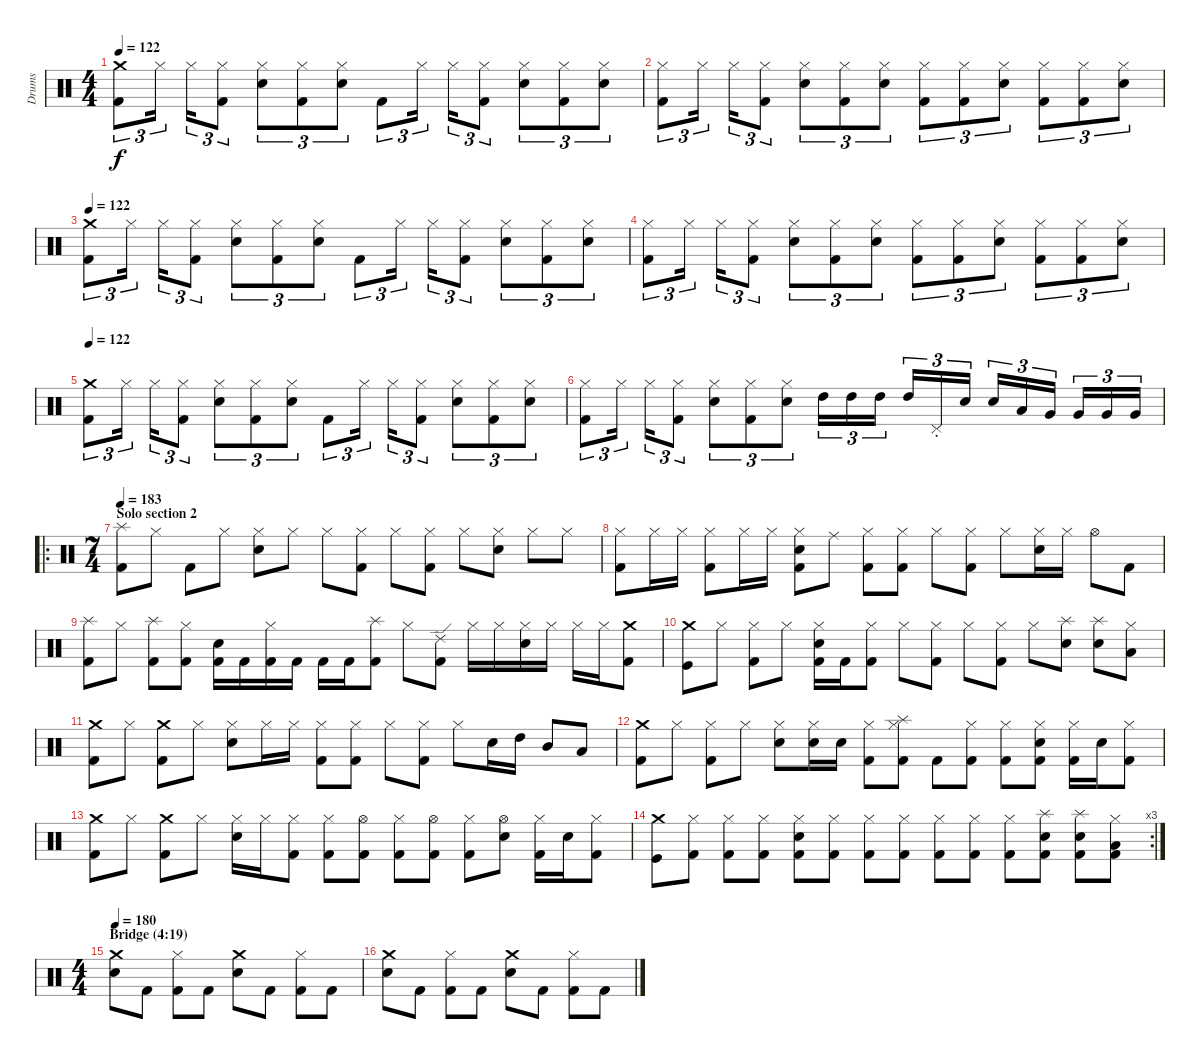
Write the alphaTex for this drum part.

\track ("Drums" "Drums") {instrument percussion}
\staff {score}
\articulation defaults
\ts (4 4)
\tempo 122
\clef neutral
\ks c
("Kick (hit) 2" "Crash medium (hit)").8{tu (3 2) dy f} "Hi-Hat (closed)".16{tu (3 2)} "Hi-Hat (closed)".16{tu (3 2)} ("Hi-Hat (closed)" "Kick (hit) 2").8{tu (3 2)} ("Hi-Hat (closed)" "Electric Snare (hit)").8{tu (3 2)} ("Hi-Hat (closed)" "Kick (hit) 2").8{tu (3 2)} ("Hi-Hat (closed)" "Electric Snare (hit)").8{tu (3 2)} "Kick (hit) 2".8{tu (3 2)} "Hi-Hat (closed)".16{tu (3 2)} "Hi-Hat (closed)".16{tu (3 2)} ("Hi-Hat (closed)" "Kick (hit) 2").8{tu (3 2)} ("Hi-Hat (closed)" "Electric Snare (hit)").8{tu (3 2)} ("Hi-Hat (closed)" "Kick (hit) 2").8{tu (3 2)} ("Hi-Hat (closed)" "Electric Snare (hit)").8{tu (3 2)} |
("Hi-Hat (closed)" "Kick (hit) 2").8{tu (3 2)} "Hi-Hat (closed)".16{tu (3 2)} "Hi-Hat (closed)".16{tu (3 2)} ("Hi-Hat (closed)" "Kick (hit) 2").8{tu (3 2)} ("Hi-Hat (closed)" "Electric Snare (hit)").8{tu (3 2)} ("Hi-Hat (closed)" "Kick (hit) 2").8{tu (3 2)} ("Hi-Hat (closed)" "Electric Snare (hit)").8{tu (3 2)} ("Hi-Hat (closed)" "Kick (hit) 2").8{tu (3 2)} ("Hi-Hat (closed)" "Kick (hit) 2").8{tu (3 2)} ("Hi-Hat (closed)" "Electric Snare (hit)").8{tu (3 2)} ("Hi-Hat (closed)" "Kick (hit) 2").8{tu (3 2)} ("Hi-Hat (closed)" "Kick (hit) 2").8{tu (3 2)} ("Hi-Hat (closed)" "Electric Snare (hit)").8{tu (3 2)} |
\tempo 122
("Kick (hit) 2" "Crash medium (hit)").8{tu (3 2)} "Hi-Hat (closed)".16{tu (3 2)} "Hi-Hat (closed)".16{tu (3 2)} ("Hi-Hat (closed)" "Kick (hit) 2").8{tu (3 2)} ("Hi-Hat (closed)" "Electric Snare (hit)").8{tu (3 2)} ("Hi-Hat (closed)" "Kick (hit) 2").8{tu (3 2)} ("Hi-Hat (closed)" "Electric Snare (hit)").8{tu (3 2)} "Kick (hit) 2".8{tu (3 2)} "Hi-Hat (closed)".16{tu (3 2)} "Hi-Hat (closed)".16{tu (3 2)} ("Hi-Hat (closed)" "Kick (hit) 2").8{tu (3 2)} ("Hi-Hat (closed)" "Electric Snare (hit)").8{tu (3 2)} ("Hi-Hat (closed)" "Kick (hit) 2").8{tu (3 2)} ("Hi-Hat (closed)" "Electric Snare (hit)").8{tu (3 2)} |
("Hi-Hat (closed)" "Kick (hit) 2").8{tu (3 2)} "Hi-Hat (closed)".16{tu (3 2)} "Hi-Hat (closed)".16{tu (3 2)} ("Hi-Hat (closed)" "Kick (hit) 2").8{tu (3 2)} ("Hi-Hat (closed)" "Electric Snare (hit)").8{tu (3 2)} ("Hi-Hat (closed)" "Kick (hit) 2").8{tu (3 2)} ("Hi-Hat (closed)" "Electric Snare (hit)").8{tu (3 2)} ("Hi-Hat (closed)" "Kick (hit) 2").8{tu (3 2)} ("Hi-Hat (closed)" "Kick (hit) 2").8{tu (3 2)} ("Hi-Hat (closed)" "Electric Snare (hit)").8{tu (3 2)} ("Hi-Hat (closed)" "Kick (hit) 2").8{tu (3 2)} ("Hi-Hat (closed)" "Kick (hit) 2").8{tu (3 2)} ("Hi-Hat (closed)" "Electric Snare (hit)").8{tu (3 2)} |
\tempo 122
("Kick (hit) 2" "Crash medium (hit)").8{tu (3 2)} "Hi-Hat (closed)".16{tu (3 2)} "Hi-Hat (closed)".16{tu (3 2)} ("Hi-Hat (closed)" "Kick (hit) 2").8{tu (3 2)} ("Hi-Hat (closed)" "Electric Snare (hit)").8{tu (3 2)} ("Hi-Hat (closed)" "Kick (hit) 2").8{tu (3 2)} ("Hi-Hat (closed)" "Electric Snare (hit)").8{tu (3 2)} "Kick (hit) 2".8{tu (3 2)} "Hi-Hat (closed)".16{tu (3 2)} "Hi-Hat (closed)".16{tu (3 2)} ("Hi-Hat (closed)" "Kick (hit) 2").8{tu (3 2)} ("Hi-Hat (closed)" "Electric Snare (hit)").8{tu (3 2)} ("Hi-Hat (closed)" "Kick (hit) 2").8{tu (3 2)} ("Hi-Hat (closed)" "Electric Snare (hit)").8{tu (3 2)} |
("Hi-Hat (closed)" "Kick (hit) 2").8{tu (3 2)} "Hi-Hat (closed)".16{tu (3 2)} "Hi-Hat (closed)".16{tu (3 2)} ("Hi-Hat (closed)" "Kick (hit) 2").8{tu (3 2)} ("Hi-Hat (closed)" "Electric Snare (hit)").8{tu (3 2)} ("Hi-Hat (closed)" "Kick (hit) 2").8{tu (3 2)} ("Hi-Hat (closed)" "Electric Snare (hit)").8{tu (3 2)} "High Tom (hit)".16{tu (3 2)} "High Tom (hit)".16{tu (3 2) balance 4} "High Tom (hit)".16{tu (3 2)} "High Tom (hit)".16{tu (3 2)} "Pedal Hi-Hat (hit)"{st}.16{tu (3 2)} "Electric Snare (hit)".16{tu (3 2) balance 8} "Electric Snare (hit)".16{tu (3 2)} "Low Floor Tom (hit)".16{tu (3 2)} "Very Low Tom (hit)".16{tu (3 2) balance 11} "Very Low Tom (hit)".16{tu (3 2)} "Very Low Tom (hit)".16{tu (3 2)} "Very Low Tom (hit)".16{tu (3 2)} |
\ro
\ts (7 4)
\section ("" "Solo section 2")
\tempo 183
("Splash (hit)" "Kick (hit) 2").8 "Hi-Hat (closed)".8 "Kick (hit) 2".8 "Hi-Hat (closed)".8 ("Hi-Hat (closed)" "Electric Snare (hit)").8 "Hi-Hat (closed)".8 "Hi-Hat (closed)".8 ("Hi-Hat (closed)" "Kick (hit) 2").8 "Hi-Hat (closed)".8 ("Hi-Hat (closed)" "Kick (hit) 2").8 "Hi-Hat (closed)".8 ("Hi-Hat (closed)" "Electric Snare (hit)").8 "Hi-Hat (closed)".8 "Hi-Hat (closed)".8 |
("Hi-Hat (closed)" "Kick (hit) 2").8 "Hi-Hat (closed)".16 "Hi-Hat (closed)".16 ("Hi-Hat (closed)" "Kick (hit) 2").8 "Hi-Hat (closed)".16 "Hi-Hat (closed)".16 ("Hi-Hat (closed)" "Electric Snare (hit)" "Kick (hit) 2").8 "Ride (middle)".8 ("Hi-Hat (closed)" "Kick (hit) 2").8 ("Hi-Hat (closed)" "Kick (hit) 2").8 "Hi-Hat (closed)".8 ("Hi-Hat (closed)" "Kick (hit) 2").8 "Hi-Hat (closed)".8 ("Hi-Hat (closed)" "Electric Snare (hit)").16 "Hi-Hat (closed)".16 "Hi-Hat (open)".8 "Kick (hit) 2".8 |
("Splash (hit)" "Kick (hit) 2").8 "Hi-Hat (closed)".8 ("Splash (hit)" "Kick (hit) 2").8 ("Hi-Hat (closed)" "Kick (hit) 2").8 ("Electric Snare (hit)" "Kick (hit) 2").16 "Kick (hit) 2".16 ("Hi-Hat (closed)" "Kick (hit) 2").16 "Kick (hit) 2".16 "Kick (hit) 2".16 "Kick (hit) 2".16 ("Splash (hit)" "Kick (hit) 2").8 "Hi-Hat (closed)".8 ("Ride (edge) 2" "Kick (hit) 2").8 "Hi-Hat (closed)".16 "Hi-Hat (closed)".16 ("Hi-Hat (closed)" "Electric Snare (hit)").16 "Hi-Hat (closed)".16 "Hi-Hat (closed)".16 "Hi-Hat (closed)".16 ("Crash medium (hit)" "Kick (hit) 2").8 |
("Crash medium (hit)" "Kick (hit)").8 "Hi-Hat (closed)".8 ("Hi-Hat (closed)" "Kick (hit) 2").8 "Hi-Hat (closed)".8 ("Hi-Hat (closed)" "Electric Snare (hit)" "Kick (hit) 2").16 "Kick (hit) 2".16 ("Hi-Hat (closed)" "Kick (hit) 2").8 "Hi-Hat (closed)".8 ("Hi-Hat (closed)" "Kick (hit) 2").8 "Hi-Hat (closed)".8 ("Hi-Hat (closed)" "Kick (hit) 2").8 "Hi-Hat (closed)".8 ("Splash (hit)" "Electric Snare (hit)").8 ("Splash (hit)" "Electric Snare (hit)").8 ("Hi-Hat (closed)" "Low Floor Tom (hit)").8 |
("Crash medium (hit)" "Kick (hit) 2").8 "Hi-Hat (closed)".8 ("Crash medium (hit)" "Kick (hit) 2").8 "Hi-Hat (closed)".8 ("Hi-Hat (closed)" "Electric Snare (hit)").8 "Hi-Hat (closed)".16 "Hi-Hat (closed)".16 ("Hi-Hat (closed)" "Kick (hit) 2").8 ("Hi-Hat (closed)" "Kick (hit) 2").8 "Hi-Hat (closed)".8 ("Hi-Hat (closed)" "Kick (hit) 2").8 "Hi-Hat (closed)".8 "Electric Snare (hit)".16 "High Tom (hit)".16 "Mid Tom (hit)".8 "Low Tom (hit)".8 |
("Crash medium (hit)" "Kick (hit) 2").8 "Hi-Hat (closed)".8 ("Hi-Hat (closed)" "Kick (hit) 2").8 "Hi-Hat (closed)".8 ("Hi-Hat (closed)" "Electric Snare (hit)").8 ("Hi-Hat (closed)" "Snare (hit) 2").16 "Electric Snare (hit)".16 ("Hi-Hat (closed)" "Kick (hit) 2").8 ("Hi-Hat (closed)" "Kick (hit) 2" "Splash (hit)").8 "Kick (hit) 2".8 ("Hi-Hat (closed)" "Kick (hit) 2").8 ("Hi-Hat (closed)" "Kick (hit) 2").8 ("Hi-Hat (closed)" "Electric Snare (hit)" "Kick (hit) 2").8 ("Hi-Hat (closed)" "Kick (hit) 2").16 "Electric Snare (hit)".16 ("Hi-Hat (closed)" "Kick (hit) 2").8 |
("Crash medium (hit)" "Kick (hit) 2").8 "Hi-Hat (closed)".8 ("Crash medium (hit)" "Kick (hit) 2").8 "Hi-Hat (closed)".8 ("Hi-Hat (closed)" "Electric Snare (hit)").16 "Hi-Hat (closed)".16 ("Hi-Hat (closed)" "Kick (hit) 2").8 ("Hi-Hat (closed)" "Kick (hit) 2").8 ("Hi-Hat (open)" "Kick (hit) 2").8 ("Hi-Hat (closed)" "Kick (hit) 2").8 ("Hi-Hat (open)" "Kick (hit) 2").8 ("Hi-Hat (closed)" "Kick (hit) 2").8 ("Hi-Hat (open)" "Electric Snare (hit)").8 ("Hi-Hat (closed)" "Kick (hit) 2").16 "Electric Snare (hit)".16 ("Hi-Hat (closed)" "Kick (hit) 2").8 |
\rc 3
("Crash medium (hit)" "Kick (hit)").8 ("Hi-Hat (closed)" "Kick (hit) 2").8 ("Hi-Hat (closed)" "Kick (hit) 2").8 ("Hi-Hat (closed)" "Kick (hit) 2").8 ("Hi-Hat (closed)" "Electric Snare (hit)" "Kick (hit) 2").8 ("Hi-Hat (closed)" "Kick (hit) 2").8 ("Hi-Hat (closed)" "Kick (hit) 2").8 ("Hi-Hat (closed)" "Kick (hit) 2").8 ("Hi-Hat (closed)" "Kick (hit) 2").8 ("Hi-Hat (closed)" "Kick (hit) 2").8 ("Hi-Hat (closed)" "Kick (hit) 2").8 ("Splash (hit)" "Electric Snare (hit)" "Kick (hit) 2").8 ("Splash (hit)" "Electric Snare (hit)" "Kick (hit) 2").8 ("Hi-Hat (closed)" "Low Floor Tom (hit)" "Kick (hit) 2").8 |
\ts (4 4)
\section ("" "Bridge (4:19)")
\tempo 180
("Electric Snare (hit)" "Crash medium (hit)").8 "Kick (hit) 2".8 ("Hi-Hat (closed)" "Kick (hit) 2").8 "Kick (hit) 2".8 ("Electric Snare (hit)" "Crash medium (hit)").8 "Kick (hit) 2".8 ("Hi-Hat (closed)" "Kick (hit) 2").8 "Kick (hit) 2".8 |
("Electric Snare (hit)" "Crash medium (hit)").8 "Kick (hit) 2".8 ("Hi-Hat (closed)" "Kick (hit) 2").8 "Kick (hit) 2".8 ("Electric Snare (hit)" "Crash medium (hit)").8 "Kick (hit) 2".8 ("Hi-Hat (closed)" "Kick (hit) 2").8 "Kick (hit) 2".8
